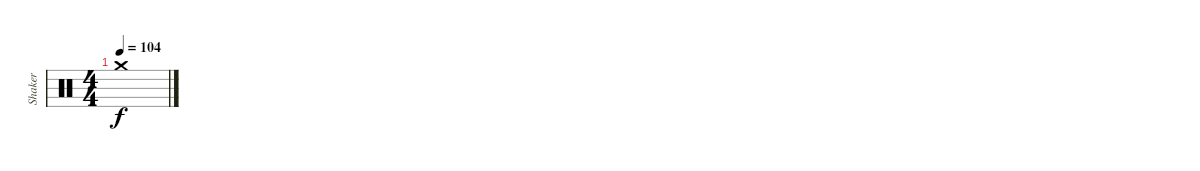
\track ("Shaker" "Shaker") {instrument percussion}
\staff {score}
\articulation defaults
\ts (4 4)
\tempo 104
\clef neutral
\ks c "Crash medium (hit)".1{dy f}
